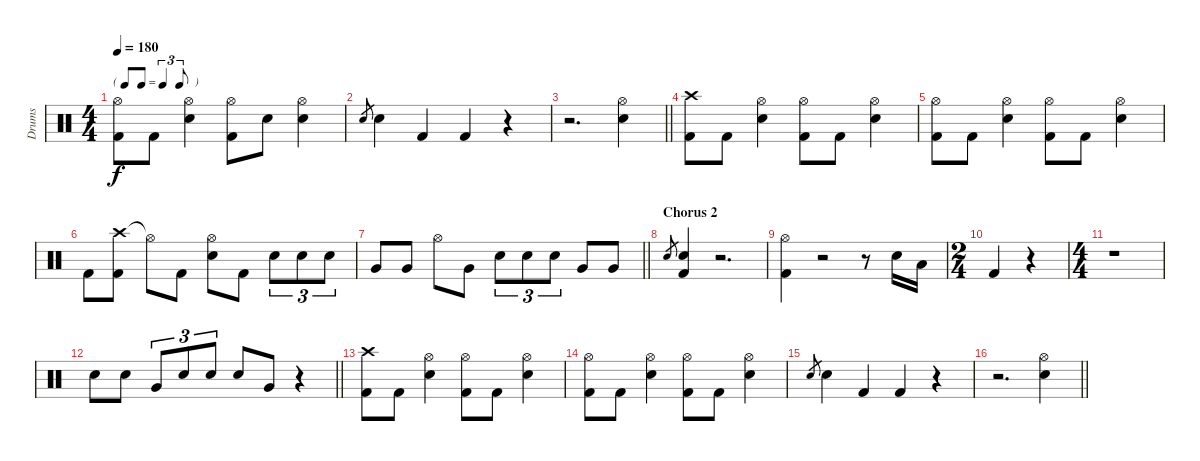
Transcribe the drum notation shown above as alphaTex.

\track ("Drums" "Drums") {instrument percussion}
\staff {score}
\articulation defaults
\ts (4 4)
\tf triplet8th
\tempo 180
\clef neutral
\ks c
("Hi-Hat (open)" "Kick (hit) 2").8{dy f} "Kick (hit) 2".8 ("Hi-Hat (open)" "Snare (hit) 2").4 ("Hi-Hat (open)" "Kick (hit) 2").8 "Snare (hit) 2".8 ("Hi-Hat (open)" "Snare (hit) 2").4 |
"Snare (hit) 2".8{gr} "Snare (hit) 2".4 "Kick (hit) 2".4 "Kick (hit) 2".4 r.4 |
\barLineRight lightlight
r.2{d} ("Hi-Hat (open)" "Snare (hit) 2").4 |
("Crash high (hit)" "Kick (hit) 2").8 "Kick (hit) 2".8 ("Hi-Hat (open)" "Snare (hit) 2").4 ("Hi-Hat (open)" "Kick (hit) 2").8 "Kick (hit) 2".8 ("Hi-Hat (open)" "Snare (hit) 2").4 |
("Hi-Hat (open)" "Kick (hit) 2").8 "Kick (hit) 2".8 ("Hi-Hat (open)" "Snare (hit) 2").4 ("Hi-Hat (open)" "Kick (hit) 2").8 "Kick (hit) 2".8 ("Hi-Hat (open)" "Snare (hit) 2").4 |
"Kick (hit) 2".8 ("Crash high (hit)" "Kick (hit) 2").8 "Hi-Hat (open)"{t}.8 "Kick (hit) 2".8 ("Hi-Hat (open)" "Snare (hit) 2").8 "Kick (hit) 2".8 "Snare (hit) 2".8{tu (3 2)} "Snare (hit) 2".8{tu (3 2)} "Snare (hit) 2".8{tu (3 2)} |
\barLineRight lightlight "Very Low Tom (hit)".8 "Very Low Tom (hit)".8 "Hi-Hat (open)".8 "Very Low Tom (hit)".8 "Snare (hit) 2".8{tu (3 2)} "Snare (hit) 2".8{tu (3 2)} "Snare (hit) 2".8{tu (3 2)} "Very Low Tom (hit)".8 "Very Low Tom (hit)".8
|
\section ("" "Chorus 2")
"Snare (hit) 2".8{gr} ("Snare (hit) 2" "Kick (hit) 2").4 r.2{d} |
("Hi-Hat (open)" "Kick (hit) 2").4 r.2 r.8 "Snare (hit) 2".16 "Low Tom (hit)".16 |
\ts (2 4)
"Kick (hit) 2".4 r.4 |
\ts (4 4)
r.1 |
\barLineRight lightlight "Snare (hit) 2".8 "Snare (hit) 2".8 "Very Low Tom (hit)".8{tu (3 2)} "Snare (hit) 2".8{tu (3 2)} "Snare (hit) 2".8{tu (3 2)} "Snare (hit) 2".8 "Very Low Tom (hit)".8
r.4 |
("Crash high (hit)" "Kick (hit) 2").8 "Kick (hit) 2".8 ("Hi-Hat (open)" "Snare (hit) 2").4 ("Hi-Hat (open)" "Kick (hit) 2").8 "Kick (hit) 2".8 ("Hi-Hat (open)" "Snare (hit) 2").4 |
("Hi-Hat (open)" "Kick (hit) 2").8 "Kick (hit) 2".8 ("Hi-Hat (open)" "Snare (hit) 2").4 ("Hi-Hat (open)" "Kick (hit) 2").8 "Kick (hit) 2".8 ("Hi-Hat (open)" "Snare (hit) 2").4 |
"Snare (hit) 2".8{gr} "Snare (hit) 2".4 "Kick (hit) 2".4 "Kick (hit) 2".4 r.4 |
\barLineRight lightlight
r.2{d} ("Hi-Hat (open)" "Snare (hit) 2").4
